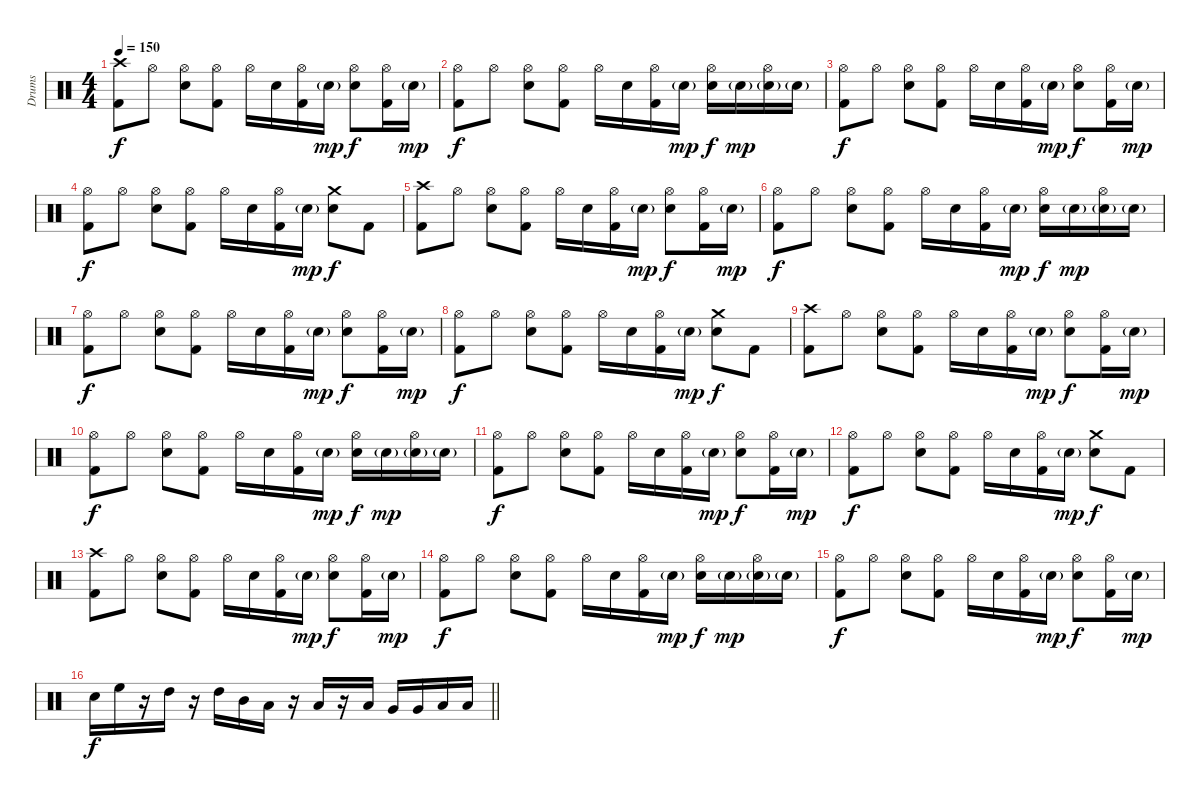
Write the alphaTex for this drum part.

\track ("Drums" "Drums") {instrument percussion}
\staff {score}
\articulation defaults
\ts (4 4)
\tempo 150
\clef neutral
\ks c
("Crash high (hit)" "Kick (hit) 2").8{dy f} "Hi-Hat (open)".8 ("Hi-Hat (open)" "Electric Snare (hit)").8 ("Hi-Hat (open)" "Kick (hit) 2").8 "Hi-Hat (open)".16 "Electric Snare (hit)".16 ("Hi-Hat (open)" "Kick (hit) 2").16 "Electric Snare (hit)"{g}.16{dy mp} ("Hi-Hat (open)" "Electric Snare (hit)").8{dy f} ("Hi-Hat (open)" "Kick (hit) 2").16 "Electric Snare (hit)"{g}.16{dy mp} |
("Hi-Hat (open)" "Kick (hit) 2").8{dy f} "Hi-Hat (open)".8 ("Hi-Hat (open)" "Electric Snare (hit)").8 ("Hi-Hat (open)" "Kick (hit) 2").8 "Hi-Hat (open)".16 "Electric Snare (hit)".16 ("Hi-Hat (open)" "Kick (hit) 2").16 "Electric Snare (hit)"{g}.16{dy mp} ("Hi-Hat (open)" "Electric Snare (hit)").16{dy f} "Electric Snare (hit)"{g}.16{dy mp} ("Hi-Hat (open)" "Electric Snare (hit)"{g}).16 "Electric Snare (hit)"{g}.16 |
("Hi-Hat (open)" "Kick (hit) 2").8{dy f} "Hi-Hat (open)".8 ("Hi-Hat (open)" "Electric Snare (hit)").8 ("Hi-Hat (open)" "Kick (hit) 2").8 "Hi-Hat (open)".16 "Electric Snare (hit)".16 ("Hi-Hat (open)" "Kick (hit) 2").16 "Electric Snare (hit)"{g}.16{dy mp} ("Hi-Hat (open)" "Electric Snare (hit)").8{dy f} ("Hi-Hat (open)" "Kick (hit) 2").16 "Electric Snare (hit)"{g}.16{dy mp} |
("Hi-Hat (open)" "Kick (hit) 2").8{dy f} "Hi-Hat (open)".8 ("Hi-Hat (open)" "Electric Snare (hit)").8 ("Hi-Hat (open)" "Kick (hit) 2").8 "Hi-Hat (open)".16 "Electric Snare (hit)".16 ("Hi-Hat (open)" "Kick (hit) 2").16 "Electric Snare (hit)"{g}.16{dy mp} ("Crash medium (hit)" "Electric Snare (hit)").8{dy f} "Kick (hit) 2".8 |
("Crash high (hit)" "Kick (hit) 2").8 "Hi-Hat (open)".8 ("Hi-Hat (open)" "Electric Snare (hit)").8 ("Hi-Hat (open)" "Kick (hit) 2").8 "Hi-Hat (open)".16 "Electric Snare (hit)".16 ("Hi-Hat (open)" "Kick (hit) 2").16 "Electric Snare (hit)"{g}.16{dy mp} ("Hi-Hat (open)" "Electric Snare (hit)").8{dy f} ("Hi-Hat (open)" "Kick (hit) 2").16 "Electric Snare (hit)"{g}.16{dy mp} |
("Hi-Hat (open)" "Kick (hit) 2").8{dy f} "Hi-Hat (open)".8 ("Hi-Hat (open)" "Electric Snare (hit)").8 ("Hi-Hat (open)" "Kick (hit) 2").8 "Hi-Hat (open)".16 "Electric Snare (hit)".16 ("Hi-Hat (open)" "Kick (hit) 2").16 "Electric Snare (hit)"{g}.16{dy mp} ("Hi-Hat (open)" "Electric Snare (hit)").16{dy f} "Electric Snare (hit)"{g}.16{dy mp} ("Hi-Hat (open)" "Electric Snare (hit)"{g}).16 "Electric Snare (hit)"{g}.16 |
("Hi-Hat (open)" "Kick (hit) 2").8{dy f} "Hi-Hat (open)".8 ("Hi-Hat (open)" "Electric Snare (hit)").8 ("Hi-Hat (open)" "Kick (hit) 2").8 "Hi-Hat (open)".16 "Electric Snare (hit)".16 ("Hi-Hat (open)" "Kick (hit) 2").16 "Electric Snare (hit)"{g}.16{dy mp} ("Hi-Hat (open)" "Electric Snare (hit)").8{dy f} ("Hi-Hat (open)" "Kick (hit) 2").16 "Electric Snare (hit)"{g}.16{dy mp} |
("Hi-Hat (open)" "Kick (hit) 2").8{dy f} "Hi-Hat (open)".8 ("Hi-Hat (open)" "Electric Snare (hit)").8 ("Hi-Hat (open)" "Kick (hit) 2").8 "Hi-Hat (open)".16 "Electric Snare (hit)".16 ("Hi-Hat (open)" "Kick (hit) 2").16 "Electric Snare (hit)"{g}.16{dy mp} ("Crash medium (hit)" "Electric Snare (hit)").8{dy f} "Kick (hit) 2".8 |
("Crash high (hit)" "Kick (hit) 2").8 "Hi-Hat (open)".8 ("Hi-Hat (open)" "Electric Snare (hit)").8 ("Hi-Hat (open)" "Kick (hit) 2").8 "Hi-Hat (open)".16 "Electric Snare (hit)".16 ("Hi-Hat (open)" "Kick (hit) 2").16 "Electric Snare (hit)"{g}.16{dy mp} ("Hi-Hat (open)" "Electric Snare (hit)").8{dy f} ("Hi-Hat (open)" "Kick (hit) 2").16 "Electric Snare (hit)"{g}.16{dy mp} |
("Hi-Hat (open)" "Kick (hit) 2").8{dy f} "Hi-Hat (open)".8 ("Hi-Hat (open)" "Electric Snare (hit)").8 ("Hi-Hat (open)" "Kick (hit) 2").8 "Hi-Hat (open)".16 "Electric Snare (hit)".16 ("Hi-Hat (open)" "Kick (hit) 2").16 "Electric Snare (hit)"{g}.16{dy mp} ("Hi-Hat (open)" "Electric Snare (hit)").16{dy f} "Electric Snare (hit)"{g}.16{dy mp} ("Hi-Hat (open)" "Electric Snare (hit)"{g}).16 "Electric Snare (hit)"{g}.16 |
("Hi-Hat (open)" "Kick (hit) 2").8{dy f} "Hi-Hat (open)".8 ("Hi-Hat (open)" "Electric Snare (hit)").8 ("Hi-Hat (open)" "Kick (hit) 2").8 "Hi-Hat (open)".16 "Electric Snare (hit)".16 ("Hi-Hat (open)" "Kick (hit) 2").16 "Electric Snare (hit)"{g}.16{dy mp} ("Hi-Hat (open)" "Electric Snare (hit)").8{dy f} ("Hi-Hat (open)" "Kick (hit) 2").16 "Electric Snare (hit)"{g}.16{dy mp} |
("Hi-Hat (open)" "Kick (hit) 2").8{dy f} "Hi-Hat (open)".8 ("Hi-Hat (open)" "Electric Snare (hit)").8 ("Hi-Hat (open)" "Kick (hit) 2").8 "Hi-Hat (open)".16 "Electric Snare (hit)".16 ("Hi-Hat (open)" "Kick (hit) 2").16 "Electric Snare (hit)"{g}.16{dy mp} ("Crash medium (hit)" "Electric Snare (hit)").8{dy f} "Kick (hit) 2".8 |
("Crash high (hit)" "Kick (hit) 2").8 "Hi-Hat (open)".8 ("Hi-Hat (open)" "Electric Snare (hit)").8 ("Hi-Hat (open)" "Kick (hit) 2").8 "Hi-Hat (open)".16 "Electric Snare (hit)".16 ("Hi-Hat (open)" "Kick (hit) 2").16 "Electric Snare (hit)"{g}.16{dy mp} ("Hi-Hat (open)" "Electric Snare (hit)").8{dy f} ("Hi-Hat (open)" "Kick (hit) 2").16 "Electric Snare (hit)"{g}.16{dy mp} |
("Hi-Hat (open)" "Kick (hit) 2").8{dy f} "Hi-Hat (open)".8 ("Hi-Hat (open)" "Electric Snare (hit)").8 ("Hi-Hat (open)" "Kick (hit) 2").8 "Hi-Hat (open)".16 "Electric Snare (hit)".16 ("Hi-Hat (open)" "Kick (hit) 2").16 "Electric Snare (hit)"{g}.16{dy mp} ("Hi-Hat (open)" "Electric Snare (hit)").16{dy f} "Electric Snare (hit)"{g}.16{dy mp} ("Hi-Hat (open)" "Electric Snare (hit)"{g}).16 "Electric Snare (hit)"{g}.16 |
("Hi-Hat (open)" "Kick (hit) 2").8{dy f} "Hi-Hat (open)".8 ("Hi-Hat (open)" "Electric Snare (hit)").8 ("Hi-Hat (open)" "Kick (hit) 2").8 "Hi-Hat (open)".16 "Electric Snare (hit)".16 ("Hi-Hat (open)" "Kick (hit) 2").16 "Electric Snare (hit)"{g}.16{dy mp} ("Hi-Hat (open)" "Electric Snare (hit)").8{dy f} ("Hi-Hat (open)" "Kick (hit) 2").16 "Electric Snare (hit)"{g}.16{dy mp} |
\barLineRight lightlight "Electric Snare (hit)".16{dy f} "High Floor Tom (hit)".16
r.16 "High Tom (hit)".16 r.16 "High Tom (hit)".16 "Mid Tom (hit)".16 "Low Tom (hit)".16 r.16 "Low Tom (hit)".16 r.16 "Low Tom (hit)".16 "Very Low Tom (hit)".16 "Very Low Tom (hit)".16 "Low Floor Tom (hit)".16 "Low Floor Tom (hit)".16
